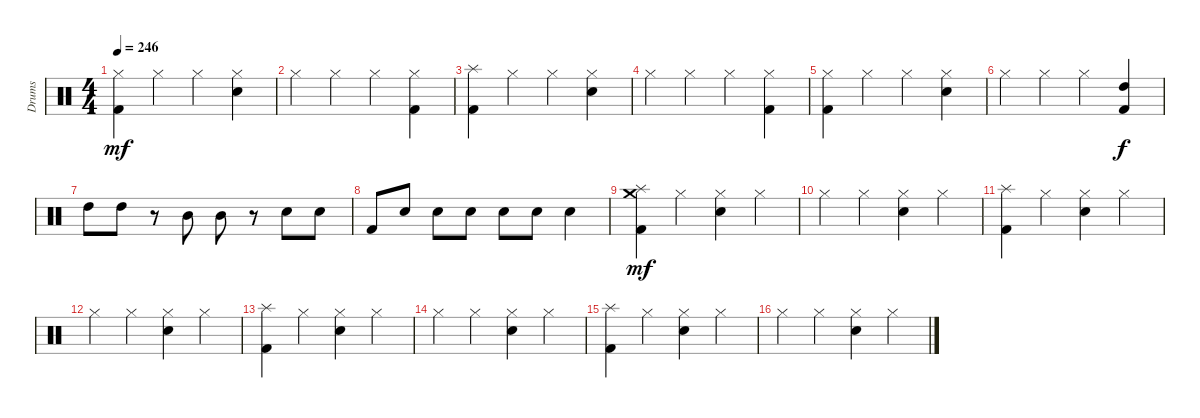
\track ("Drums" "Drums") {instrument percussion}
\staff {score}
\articulation defaults
\ts (4 4)
\tempo 246
\clef neutral
\ks c
("Hi-Hat (closed)" "Kick (hit) 2").4{dy mf} "Hi-Hat (closed)".4 "Hi-Hat (closed)".4 ("Hi-Hat (closed)" "Snare (hit) 2").4 |
"Hi-Hat (closed)".4 "Hi-Hat (closed)".4 "Hi-Hat (closed)".4 ("Hi-Hat (closed)" "Kick (hit) 2").4 |
("Splash (hit)" "Kick (hit) 2").4 "Hi-Hat (closed)".4 "Hi-Hat (closed)".4 ("Hi-Hat (closed)" "Snare (hit) 2").4 |
"Hi-Hat (closed)".4 "Hi-Hat (closed)".4 "Hi-Hat (closed)".4 ("Hi-Hat (closed)" "Kick (hit) 2").4 |
("Hi-Hat (closed)" "Kick (hit) 2").4 "Hi-Hat (closed)".4 "Hi-Hat (closed)".4 ("Hi-Hat (closed)" "Snare (hit) 2").4 |
"Hi-Hat (closed)".4 "Hi-Hat (closed)".4 "Hi-Hat (closed)".4 ("High Tom (hit)" "Kick (hit) 2").4{dy f} |
"High Tom (hit)".8 "High Tom (hit)".8 r.8 "Mid Tom (hit)".8 "Mid Tom (hit)".8 r.8 "Snare (hit) 2".8 "Snare (hit) 2".8 |
"Kick (hit) 2".8 "Electric Snare (hit)".8 "Electric Snare (hit)".8 "Electric Snare (hit)".8 "Electric Snare (hit)".8 "Electric Snare (hit)".8 "Electric Snare (hit)".4 |
("Crash medium (hit)" "Splash (hit)" "Kick (hit) 2").4{dy mf} "Hi-Hat (closed)".4 ("Hi-Hat (closed)" "Snare (hit) 2").4 "Hi-Hat (closed)".4 |
"Hi-Hat (closed)".4 "Hi-Hat (closed)".4 ("Hi-Hat (closed)" "Snare (hit) 2").4 "Hi-Hat (closed)".4 |
("Splash (hit)" "Kick (hit) 2").4 "Hi-Hat (closed)".4 ("Hi-Hat (closed)" "Snare (hit) 2").4 "Hi-Hat (closed)".4 |
"Hi-Hat (closed)".4 "Hi-Hat (closed)".4 ("Hi-Hat (closed)" "Snare (hit) 2").4 "Hi-Hat (closed)".4 |
("Splash (hit)" "Kick (hit) 2").4 "Hi-Hat (closed)".4 ("Hi-Hat (closed)" "Snare (hit) 2").4 "Hi-Hat (closed)".4 |
"Hi-Hat (closed)".4 "Hi-Hat (closed)".4 ("Hi-Hat (closed)" "Snare (hit) 2").4 "Hi-Hat (closed)".4 |
("Splash (hit)" "Kick (hit) 2").4 "Hi-Hat (closed)".4 ("Hi-Hat (closed)" "Snare (hit) 2").4 "Hi-Hat (closed)".4 |
"Hi-Hat (closed)".4 "Hi-Hat (closed)".4 ("Hi-Hat (closed)" "Snare (hit) 2").4 "Hi-Hat (closed)".4
